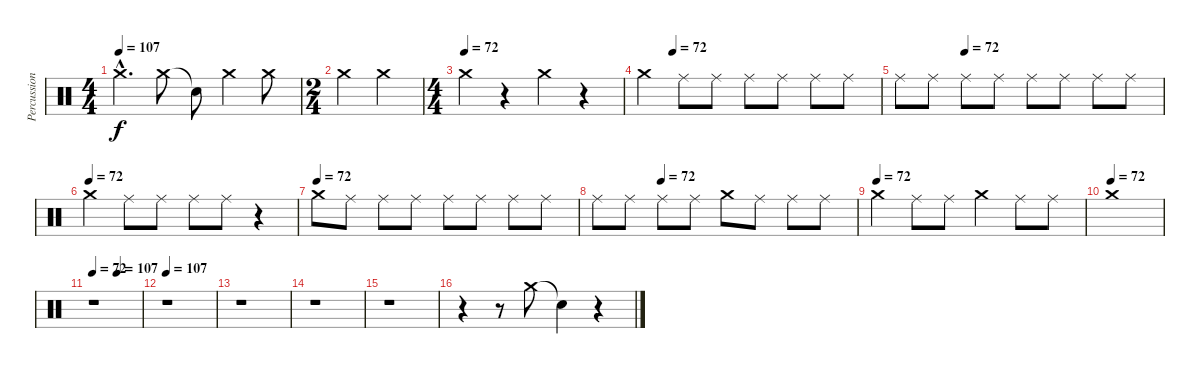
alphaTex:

\track ("Percussion" "Percussion") {instrument percussion}
\staff {score}
\articulation defaults
\ts (4 4)
\tempo 107
\clef neutral
\ks c "Crash medium (hit)"{hac}.4{d dy f} "Crash medium (hit)".8 "Snare (hit)"{t}.8 "Crash medium (hit)".4 "Crash medium (hit)".8
|
\ts (2 4)
"Crash medium (hit)".4 "Crash medium (hit)".4 |
\ts (4 4)
\tempo (72)
"Crash medium (hit)".4 r.4 "Crash medium (hit)".4 r.4 |
\tempo (72 0.125)
"Crash medium (hit)".4 "Ride (middle)".8 "Ride (middle)".8 "Ride (middle)".8 "Ride (middle)".8 "Ride (middle)".8 "Ride (middle)".8 |
\tempo (72 0.25)
"Ride (middle)".8 "Ride (middle)".8 "Ride (middle)".8 "Ride (middle)".8 "Ride (middle)".8 "Ride (middle)".8 "Ride (middle)".8 "Ride (middle)".8 |
\tempo (72)
"Crash medium (hit)".4 "Ride (middle)".8 "Ride (middle)".8 "Ride (middle)".8 "Ride (middle)".8 r.4 |
\tempo (72)
"Crash medium (hit)".8 "Ride (middle)".8 "Ride (middle)".8 "Ride (middle)".8 "Ride (middle)".8 "Ride (middle)".8 "Ride (middle)".8 "Ride (middle)".8 |
\tempo (72 0.25)
"Ride (middle)".8 "Ride (middle)".8 "Ride (middle)".8 "Ride (middle)".8 "Crash medium (hit)".8 "Ride (middle)".8 "Ride (middle)".8 "Ride (middle)".8 |
\tempo (72)
"Crash medium (hit)".4 "Ride (middle)".8 "Ride (middle)".8 "Crash medium (hit)".4 "Ride (middle)".8 "Ride (middle)".8 |
\tempo (72)
"Crash medium (hit)".1 |
\tempo (107 0.5)
\tempo 72
r.1 |
\tempo 107
r.1 |
r.1 |
r.1 |
r.1 |
r.4 r.8 "Crash medium (hit)".8 "Snare (hit)"{t}.4 r.4
